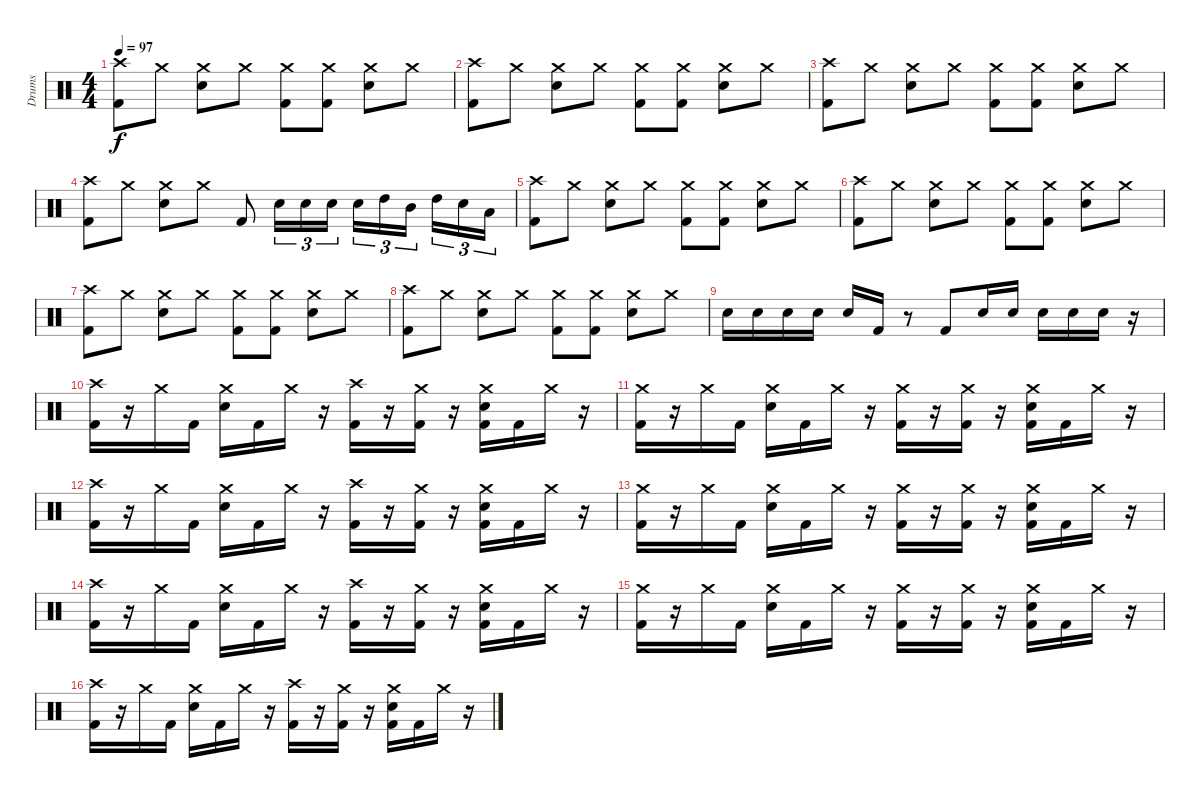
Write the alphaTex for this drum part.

\track ("Drums" "Drums") {instrument percussion}
\staff {score}
\articulation defaults
\ts (4 4)
\tempo 97
\clef neutral
\ks c
("Crash high (hit)" "Kick (hit) 2").8{dy f} "Crash medium (hit)".8 ("Crash medium (hit)" "Electric Snare (hit)").8 "Crash medium (hit)".8 ("Crash medium (hit)" "Kick (hit) 2").8 ("Crash medium (hit)" "Kick (hit) 2").8 ("Crash medium (hit)" "Electric Snare (hit)").8 "Crash medium (hit)".8 |
("Crash high (hit)" "Kick (hit) 2").8 "Crash medium (hit)".8 ("Crash medium (hit)" "Electric Snare (hit)").8 "Crash medium (hit)".8 ("Crash medium (hit)" "Kick (hit) 2").8 ("Crash medium (hit)" "Kick (hit) 2").8 ("Crash medium (hit)" "Electric Snare (hit)").8 "Crash medium (hit)".8 |
("Crash high (hit)" "Kick (hit) 2").8 "Crash medium (hit)".8 ("Crash medium (hit)" "Electric Snare (hit)").8 "Crash medium (hit)".8 ("Crash medium (hit)" "Kick (hit) 2").8 ("Crash medium (hit)" "Kick (hit) 2").8 ("Crash medium (hit)" "Electric Snare (hit)").8 "Crash medium (hit)".8 |
("Crash high (hit)" "Kick (hit) 2").8 "Crash medium (hit)".8 ("Crash medium (hit)" "Electric Snare (hit)").8 "Crash medium (hit)".8 "Kick (hit) 2".8 "Snare (hit) 2".16{tu (3 2)} "Snare (hit) 2".16{tu (3 2)} "Electric Snare (hit)".16{tu (3 2)} "Electric Snare (hit)".16{tu (3 2)} "High Tom (hit)".16{tu (3 2)} "Mid Tom (hit)".16{tu (3 2)} "High Tom (hit)".16{tu (3 2)} "Snare (hit) 2".16{tu (3 2)} "Low Tom (hit)".16{tu (3 2)} |
("Crash high (hit)" "Kick (hit) 2").8 "Crash medium (hit)".8 ("Crash medium (hit)" "Electric Snare (hit)").8 "Crash medium (hit)".8 ("Crash medium (hit)" "Kick (hit) 2").8 ("Crash medium (hit)" "Kick (hit) 2").8 ("Crash medium (hit)" "Electric Snare (hit)").8 "Crash medium (hit)".8 |
("Crash high (hit)" "Kick (hit) 2").8 "Crash medium (hit)".8 ("Crash medium (hit)" "Electric Snare (hit)").8 "Crash medium (hit)".8 ("Crash medium (hit)" "Kick (hit) 2").8 ("Crash medium (hit)" "Kick (hit) 2").8 ("Crash medium (hit)" "Electric Snare (hit)").8 "Crash medium (hit)".8 |
("Crash high (hit)" "Kick (hit) 2").8 "Crash medium (hit)".8 ("Crash medium (hit)" "Electric Snare (hit)").8 "Crash medium (hit)".8 ("Crash medium (hit)" "Kick (hit) 2").8 ("Crash medium (hit)" "Kick (hit) 2").8 ("Crash medium (hit)" "Electric Snare (hit)").8 "Crash medium (hit)".8 |
("Crash high (hit)" "Kick (hit) 2").8 "Crash medium (hit)".8 ("Crash medium (hit)" "Electric Snare (hit)").8 "Crash medium (hit)".8 ("Crash medium (hit)" "Kick (hit) 2").8 ("Crash medium (hit)" "Kick (hit) 2").8 ("Crash medium (hit)" "Electric Snare (hit)").8 "Crash medium (hit)".8 |
"Snare (hit) 2".16 "Snare (hit) 2".16 "Snare (hit) 2".16 "Snare (hit) 2".16 "Snare (hit) 2".16 "Kick (hit) 2".16 r.8 "Kick (hit) 2".8 "Snare (hit) 2".16 "Snare (hit) 2".16 "Snare (hit) 2".16 "Snare (hit) 2".16 "Snare (hit) 2".16 r.16 |
("Crash high (hit)" "Kick (hit) 2").16 r.16 "Crash medium (hit)".16 "Kick (hit) 2".16 ("Crash medium (hit)" "Electric Snare (hit)").16 "Kick (hit) 2".16 "Crash medium (hit)".16 r.16 ("Crash high (hit)" "Kick (hit) 2").16 r.16 ("Crash medium (hit)" "Kick (hit) 2").16 r.16 ("Crash medium (hit)" "Electric Snare (hit)" "Kick (hit) 2").16 "Kick (hit) 2".16 "Crash medium (hit)".16 r.16 |
("Crash medium (hit)" "Kick (hit) 2").16 r.16 "Crash medium (hit)".16 "Kick (hit) 2".16 ("Crash medium (hit)" "Electric Snare (hit)").16 "Kick (hit) 2".16 "Crash medium (hit)".16 r.16 ("Crash medium (hit)" "Kick (hit) 2").16 r.16 ("Crash medium (hit)" "Kick (hit) 2").16 r.16 ("Crash medium (hit)" "Electric Snare (hit)" "Kick (hit) 2").16 "Kick (hit) 2".16 "Crash medium (hit)".16 r.16 |
("Crash high (hit)" "Kick (hit) 2").16 r.16 "Crash medium (hit)".16 "Kick (hit) 2".16 ("Crash medium (hit)" "Electric Snare (hit)").16 "Kick (hit) 2".16 "Crash medium (hit)".16 r.16 ("Crash high (hit)" "Kick (hit) 2").16 r.16 ("Crash medium (hit)" "Kick (hit) 2").16 r.16 ("Crash medium (hit)" "Electric Snare (hit)" "Kick (hit) 2").16 "Kick (hit) 2".16 "Crash medium (hit)".16 r.16 |
("Crash medium (hit)" "Kick (hit) 2").16 r.16 "Crash medium (hit)".16 "Kick (hit) 2".16 ("Crash medium (hit)" "Electric Snare (hit)").16 "Kick (hit) 2".16 "Crash medium (hit)".16 r.16 ("Crash medium (hit)" "Kick (hit) 2").16 r.16 ("Crash medium (hit)" "Kick (hit) 2").16 r.16 ("Crash medium (hit)" "Electric Snare (hit)" "Kick (hit) 2").16 "Kick (hit) 2".16 "Crash medium (hit)".16 r.16 |
("Crash high (hit)" "Kick (hit) 2").16 r.16 "Crash medium (hit)".16 "Kick (hit) 2".16 ("Crash medium (hit)" "Electric Snare (hit)").16 "Kick (hit) 2".16 "Crash medium (hit)".16 r.16 ("Crash high (hit)" "Kick (hit) 2").16 r.16 ("Crash medium (hit)" "Kick (hit) 2").16 r.16 ("Crash medium (hit)" "Electric Snare (hit)" "Kick (hit) 2").16 "Kick (hit) 2".16 "Crash medium (hit)".16 r.16 |
("Crash medium (hit)" "Kick (hit) 2").16 r.16 "Crash medium (hit)".16 "Kick (hit) 2".16 ("Crash medium (hit)" "Electric Snare (hit)").16 "Kick (hit) 2".16 "Crash medium (hit)".16 r.16 ("Crash medium (hit)" "Kick (hit) 2").16 r.16 ("Crash medium (hit)" "Kick (hit) 2").16 r.16 ("Crash medium (hit)" "Electric Snare (hit)" "Kick (hit) 2").16 "Kick (hit) 2".16 "Crash medium (hit)".16 r.16 |
("Crash high (hit)" "Kick (hit) 2").16 r.16 "Crash medium (hit)".16 "Kick (hit) 2".16 ("Crash medium (hit)" "Electric Snare (hit)").16 "Kick (hit) 2".16 "Crash medium (hit)".16 r.16 ("Crash high (hit)" "Kick (hit) 2").16 r.16 ("Crash medium (hit)" "Kick (hit) 2").16 r.16 ("Crash medium (hit)" "Electric Snare (hit)" "Kick (hit) 2").16 "Kick (hit) 2".16 "Crash medium (hit)".16 r.16
